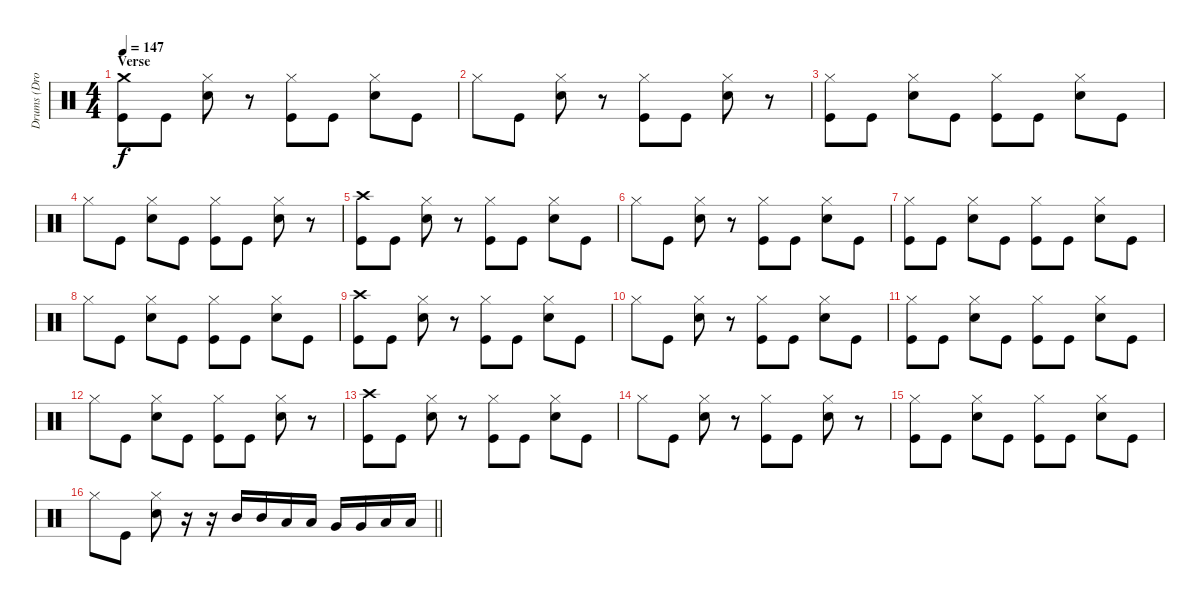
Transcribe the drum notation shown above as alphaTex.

\track ("Drums (Drover)" "Drums (Dro") {instrument percussion}
\staff {score}
\articulation defaults
\ts (4 4)
\section ("" "Verse")
\tempo 147
\clef neutral
\ks c
("Crash medium (hit)" "Kick (hit)").8{dy f} "Kick (hit)".8 ("Hi-Hat (closed)" "Snare (hit) 2").8 r.8 ("Hi-Hat (closed)" "Kick (hit)").8 "Kick (hit)".8 ("Hi-Hat (closed)" "Snare (hit) 2").8 "Kick (hit)".8 |
"Hi-Hat (closed)".8 "Kick (hit)".8 ("Hi-Hat (closed)" "Snare (hit) 2").8 r.8 ("Hi-Hat (closed)" "Kick (hit)").8 "Kick (hit)".8 ("Hi-Hat (closed)" "Snare (hit) 2").8 r.8 |
("Hi-Hat (closed)" "Kick (hit)").8 "Kick (hit)".8 ("Hi-Hat (closed)" "Snare (hit) 2").8 "Kick (hit)".8 ("Hi-Hat (closed)" "Kick (hit)").8 "Kick (hit)".8 ("Hi-Hat (closed)" "Snare (hit) 2").8 "Kick (hit)".8 |
"Hi-Hat (closed)".8 "Kick (hit)".8 ("Hi-Hat (closed)" "Snare (hit) 2").8 "Kick (hit)".8 ("Hi-Hat (closed)" "Kick (hit)").8 "Kick (hit)".8 ("Hi-Hat (closed)" "Snare (hit) 2").8 r.8 |
("Crash high (hit)" "Kick (hit)").8 "Kick (hit)".8 ("Hi-Hat (closed)" "Snare (hit) 2").8 r.8 ("Hi-Hat (closed)" "Kick (hit)").8 "Kick (hit)".8 ("Hi-Hat (closed)" "Snare (hit) 2").8 "Kick (hit)".8 |
"Hi-Hat (closed)".8 "Kick (hit)".8 ("Hi-Hat (closed)" "Snare (hit) 2").8 r.8 ("Hi-Hat (closed)" "Kick (hit)").8 "Kick (hit)".8 ("Hi-Hat (closed)" "Snare (hit) 2").8 "Kick (hit)".8 |
("Hi-Hat (closed)" "Kick (hit)").8 "Kick (hit)".8 ("Hi-Hat (closed)" "Snare (hit) 2").8 "Kick (hit)".8 ("Hi-Hat (closed)" "Kick (hit)").8 "Kick (hit)".8 ("Hi-Hat (closed)" "Snare (hit) 2").8 "Kick (hit)".8 |
"Hi-Hat (closed)".8 "Kick (hit)".8 ("Hi-Hat (closed)" "Snare (hit) 2").8 "Kick (hit)".8 ("Hi-Hat (closed)" "Kick (hit)").8 "Kick (hit)".8 ("Hi-Hat (closed)" "Snare (hit) 2").8 "Kick (hit)".8 |
("Crash high (hit)" "Kick (hit)").8 "Kick (hit)".8 ("Hi-Hat (closed)" "Snare (hit) 2").8 r.8 ("Hi-Hat (closed)" "Kick (hit)").8 "Kick (hit)".8 ("Hi-Hat (closed)" "Snare (hit) 2").8 "Kick (hit)".8 |
"Hi-Hat (closed)".8 "Kick (hit)".8 ("Hi-Hat (closed)" "Snare (hit) 2").8 r.8 ("Hi-Hat (closed)" "Kick (hit)").8 "Kick (hit)".8 ("Hi-Hat (closed)" "Snare (hit) 2").8 "Kick (hit)".8 |
("Hi-Hat (closed)" "Kick (hit)").8 "Kick (hit)".8 ("Hi-Hat (closed)" "Snare (hit) 2").8 "Kick (hit)".8 ("Hi-Hat (closed)" "Kick (hit)").8 "Kick (hit)".8 ("Hi-Hat (closed)" "Snare (hit) 2").8 "Kick (hit)".8 |
"Hi-Hat (closed)".8 "Kick (hit)".8 ("Hi-Hat (closed)" "Snare (hit) 2").8 "Kick (hit)".8 ("Hi-Hat (closed)" "Kick (hit)").8 "Kick (hit)".8 ("Hi-Hat (closed)" "Snare (hit) 2").8 r.8 |
("Crash high (hit)" "Kick (hit)").8 "Kick (hit)".8 ("Hi-Hat (closed)" "Snare (hit) 2").8 r.8 ("Hi-Hat (closed)" "Kick (hit)").8 "Kick (hit)".8 ("Hi-Hat (closed)" "Snare (hit) 2").8 "Kick (hit)".8 |
"Hi-Hat (closed)".8 "Kick (hit)".8 ("Hi-Hat (closed)" "Snare (hit) 2").8 r.8 ("Hi-Hat (closed)" "Kick (hit)").8 "Kick (hit)".8 ("Hi-Hat (closed)" "Snare (hit) 2").8 r.8 |
("Hi-Hat (closed)" "Kick (hit)").8 "Kick (hit)".8 ("Hi-Hat (closed)" "Snare (hit) 2").8 "Kick (hit)".8 ("Hi-Hat (closed)" "Kick (hit)").8 "Kick (hit)".8 ("Hi-Hat (closed)" "Snare (hit) 2").8 "Kick (hit)".8 |
\barLineRight lightlight "Hi-Hat (closed)".8 "Kick (hit)".8
("Hi-Hat (closed)" "Snare (hit) 2").8 r.16 r.16 "Mid Tom (hit)".16 "Mid Tom (hit)".16 "Low Tom (hit)".16 "Low Tom (hit)".16 "Very Low Tom (hit)".16 "Very Low Tom (hit)".16 "Low Floor Tom (hit)".16 "Low Floor Tom (hit)".16
